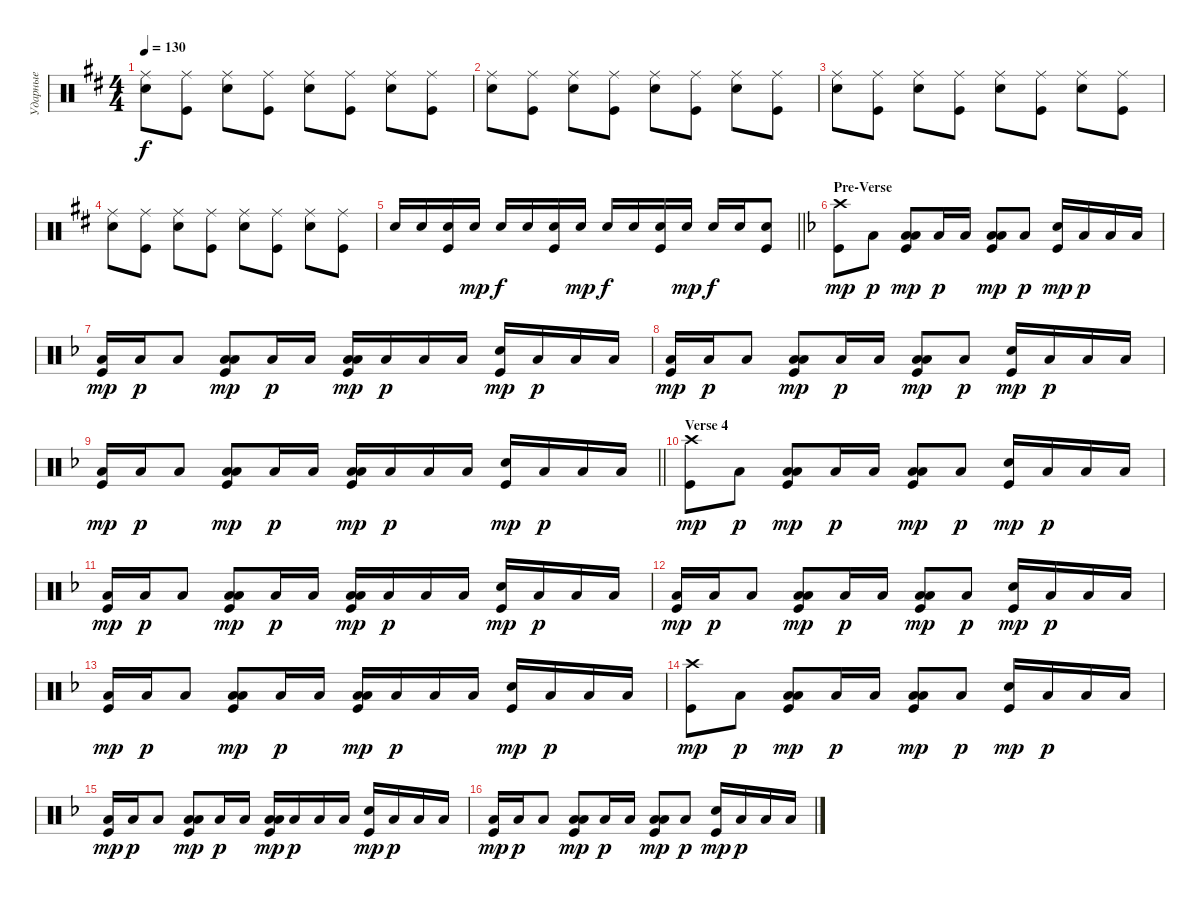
\track ("Ударные" "Ударные") {instrument percussion}
\staff {score}
\articulation defaults
\ts (4 4)
\tempo 130
\clef neutral
\ks bminor
("Snare (hit) 2" "Ride (middle)").8{dy f} ("Kick (hit)" "Ride (middle)").8 ("Snare (hit) 2" "Ride (middle)").8 ("Kick (hit)" "Ride (middle)").8 ("Snare (hit) 2" "Ride (middle)").8 ("Kick (hit)" "Ride (middle)").8 ("Snare (hit) 2" "Ride (middle)").8 ("Ride (middle)" "Kick (hit)").8 |
("Snare (hit) 2" "Ride (middle)").8 ("Kick (hit)" "Ride (middle)").8 ("Snare (hit) 2" "Ride (middle)").8 ("Kick (hit)" "Ride (middle)").8 ("Snare (hit) 2" "Ride (middle)").8 ("Kick (hit)" "Ride (middle)").8 ("Snare (hit) 2" "Ride (middle)").8 ("Ride (middle)" "Kick (hit)").8 |
("Snare (hit) 2" "Ride (middle)").8 ("Kick (hit)" "Ride (middle)").8 ("Snare (hit) 2" "Ride (middle)").8 ("Kick (hit)" "Ride (middle)").8 ("Snare (hit) 2" "Ride (middle)").8 ("Kick (hit)" "Ride (middle)").8 ("Snare (hit) 2" "Ride (middle)").8 ("Ride (middle)" "Kick (hit)").8 |
("Snare (hit) 2" "Ride (middle)").8 ("Kick (hit)" "Ride (middle)").8 ("Snare (hit) 2" "Ride (middle)").8 ("Kick (hit)" "Ride (middle)").8 ("Snare (hit) 2" "Ride (middle)").8 ("Kick (hit)" "Ride (middle)").8 ("Snare (hit) 2" "Ride (middle)").8 ("Ride (middle)" "Kick (hit)").8 |
\barLineRight lightlight "Snare (hit) 2".16 "Snare (hit) 2".16
("Snare (hit) 2" "Kick (hit)").16 "Snare (hit) 2".16{dy mp} "Snare (hit) 2".16{dy f} "Snare (hit) 2".16 ("Snare (hit) 2" "Kick (hit)").16 "Snare (hit) 2".16{dy mp} "Snare (hit) 2".16{dy f} "Snare (hit) 2".16 ("Snare (hit) 2" "Kick (hit)").16 "Snare (hit) 2".16{dy mp} "Snare (hit) 2".16{dy f} "Snare (hit) 2".16 ("Snare (hit) 2" "Kick (hit)").8 |
\section ("" "Pre-Verse")
\ks dminor
("Kick (hit)" "Crash high (hit)").8{dy mp} "Low Tom (hit)".8{dy p} ("Low Tom (hit)" "Kick (hit)" "Low Tom (hit)").8{bd 240 dy mp} "Low Tom (hit)".16{dy p} "Low Tom (hit)".16 ("Low Tom (hit)" "Kick (hit)" "Low Tom (hit)").8{bd 240 dy mp} "Low Tom (hit)".8{dy p} ("Kick (hit)" "Snare (hit) 2").16{dy mp} "Low Tom (hit)".16{dy p} "Low Tom (hit)".16 "Low Tom (hit)".16 |
("Low Tom (hit)" "Kick (hit)").16{dy mp} "Low Tom (hit)".16{dy p} "Low Tom (hit)".8{bd 240} ("Low Tom (hit)" "Kick (hit)" "Low Tom (hit)").8{bd 240 dy mp} "Low Tom (hit)".16{dy p} "Low Tom (hit)".16 ("Low Tom (hit)" "Kick (hit)" "Low Tom (hit)").16{bd 240 dy mp} "Low Tom (hit)".16{dy p} "Low Tom (hit)".16 "Low Tom (hit)".16 ("Kick (hit)" "Snare (hit) 2").16{dy mp} "Low Tom (hit)".16{dy p} "Low Tom (hit)".16 "Low Tom (hit)".16 |
("Low Tom (hit)" "Kick (hit)").16{dy mp} "Low Tom (hit)".16{dy p} "Low Tom (hit)".8{bd 240} ("Low Tom (hit)" "Kick (hit)" "Low Tom (hit)").8{bd 240 dy mp} "Low Tom (hit)".16{dy p} "Low Tom (hit)".16 ("Low Tom (hit)" "Kick (hit)" "Low Tom (hit)").8{bd 240 dy mp} "Low Tom (hit)".8{dy p} ("Kick (hit)" "Snare (hit) 2").16{dy mp} "Low Tom (hit)".16{dy p} "Low Tom (hit)".16 "Low Tom (hit)".16 |
\barLineRight lightlight
("Low Tom (hit)" "Kick (hit)").16{dy mp} "Low Tom (hit)".16{dy p} "Low Tom (hit)".8{bd 240} ("Low Tom (hit)" "Kick (hit)" "Low Tom (hit)").8{bd 240 dy mp} "Low Tom (hit)".16{dy p} "Low Tom (hit)".16 ("Low Tom (hit)" "Kick (hit)" "Low Tom (hit)").16{bd 240 dy mp} "Low Tom (hit)".16{dy p} "Low Tom (hit)".16 "Low Tom (hit)".16 ("Kick (hit)" "Snare (hit) 2").16{dy mp} "Low Tom (hit)".16{dy p} "Low Tom (hit)".16 "Low Tom (hit)".16 |
\section ("" "Verse 4")
("Kick (hit)" "Crash high (hit)").8{dy mp} "Low Tom (hit)".8{dy p} ("Low Tom (hit)" "Kick (hit)" "Low Tom (hit)").8{bd 240 dy mp} "Low Tom (hit)".16{dy p} "Low Tom (hit)".16 ("Low Tom (hit)" "Kick (hit)" "Low Tom (hit)").8{bd 240 dy mp} "Low Tom (hit)".8{dy p} ("Kick (hit)" "Snare (hit) 2").16{dy mp} "Low Tom (hit)".16{dy p} "Low Tom (hit)".16 "Low Tom (hit)".16 |
("Low Tom (hit)" "Kick (hit)").16{dy mp} "Low Tom (hit)".16{dy p} "Low Tom (hit)".8{bd 240} ("Low Tom (hit)" "Kick (hit)" "Low Tom (hit)").8{bd 240 dy mp} "Low Tom (hit)".16{dy p} "Low Tom (hit)".16 ("Low Tom (hit)" "Kick (hit)" "Low Tom (hit)").16{bd 240 dy mp} "Low Tom (hit)".16{dy p} "Low Tom (hit)".16 "Low Tom (hit)".16 ("Kick (hit)" "Snare (hit) 2").16{dy mp} "Low Tom (hit)".16{dy p} "Low Tom (hit)".16 "Low Tom (hit)".16 |
("Low Tom (hit)" "Kick (hit)").16{dy mp} "Low Tom (hit)".16{dy p} "Low Tom (hit)".8{bd 240} ("Low Tom (hit)" "Kick (hit)" "Low Tom (hit)").8{bd 240 dy mp} "Low Tom (hit)".16{dy p} "Low Tom (hit)".16 ("Low Tom (hit)" "Kick (hit)" "Low Tom (hit)").8{bd 240 dy mp} "Low Tom (hit)".8{dy p} ("Kick (hit)" "Snare (hit) 2").16{dy mp} "Low Tom (hit)".16{dy p} "Low Tom (hit)".16 "Low Tom (hit)".16 |
("Low Tom (hit)" "Kick (hit)").16{dy mp} "Low Tom (hit)".16{dy p} "Low Tom (hit)".8{bd 240} ("Low Tom (hit)" "Kick (hit)" "Low Tom (hit)").8{bd 240 dy mp} "Low Tom (hit)".16{dy p} "Low Tom (hit)".16 ("Low Tom (hit)" "Kick (hit)" "Low Tom (hit)").16{bd 240 dy mp} "Low Tom (hit)".16{dy p} "Low Tom (hit)".16 "Low Tom (hit)".16 ("Kick (hit)" "Snare (hit) 2").16{dy mp} "Low Tom (hit)".16{dy p} "Low Tom (hit)".16 "Low Tom (hit)".16 |
("Kick (hit)" "Crash high (hit)").8{dy mp} "Low Tom (hit)".8{dy p} ("Low Tom (hit)" "Kick (hit)" "Low Tom (hit)").8{bd 240 dy mp} "Low Tom (hit)".16{dy p} "Low Tom (hit)".16 ("Low Tom (hit)" "Kick (hit)" "Low Tom (hit)").8{bd 240 dy mp} "Low Tom (hit)".8{dy p} ("Kick (hit)" "Snare (hit) 2").16{dy mp} "Low Tom (hit)".16{dy p} "Low Tom (hit)".16 "Low Tom (hit)".16 |
("Low Tom (hit)" "Kick (hit)").16{dy mp} "Low Tom (hit)".16{dy p} "Low Tom (hit)".8{bd 240} ("Low Tom (hit)" "Kick (hit)" "Low Tom (hit)").8{bd 240 dy mp} "Low Tom (hit)".16{dy p} "Low Tom (hit)".16 ("Low Tom (hit)" "Kick (hit)" "Low Tom (hit)").16{bd 240 dy mp} "Low Tom (hit)".16{dy p} "Low Tom (hit)".16 "Low Tom (hit)".16 ("Kick (hit)" "Snare (hit) 2").16{dy mp} "Low Tom (hit)".16{dy p} "Low Tom (hit)".16 "Low Tom (hit)".16 |
("Low Tom (hit)" "Kick (hit)").16{dy mp} "Low Tom (hit)".16{dy p} "Low Tom (hit)".8{bd 240} ("Low Tom (hit)" "Kick (hit)" "Low Tom (hit)").8{bd 240 dy mp} "Low Tom (hit)".16{dy p} "Low Tom (hit)".16 ("Low Tom (hit)" "Kick (hit)" "Low Tom (hit)").8{bd 240 dy mp} "Low Tom (hit)".8{dy p} ("Kick (hit)" "Snare (hit) 2").16{dy mp} "Low Tom (hit)".16{dy p} "Low Tom (hit)".16 "Low Tom (hit)".16
